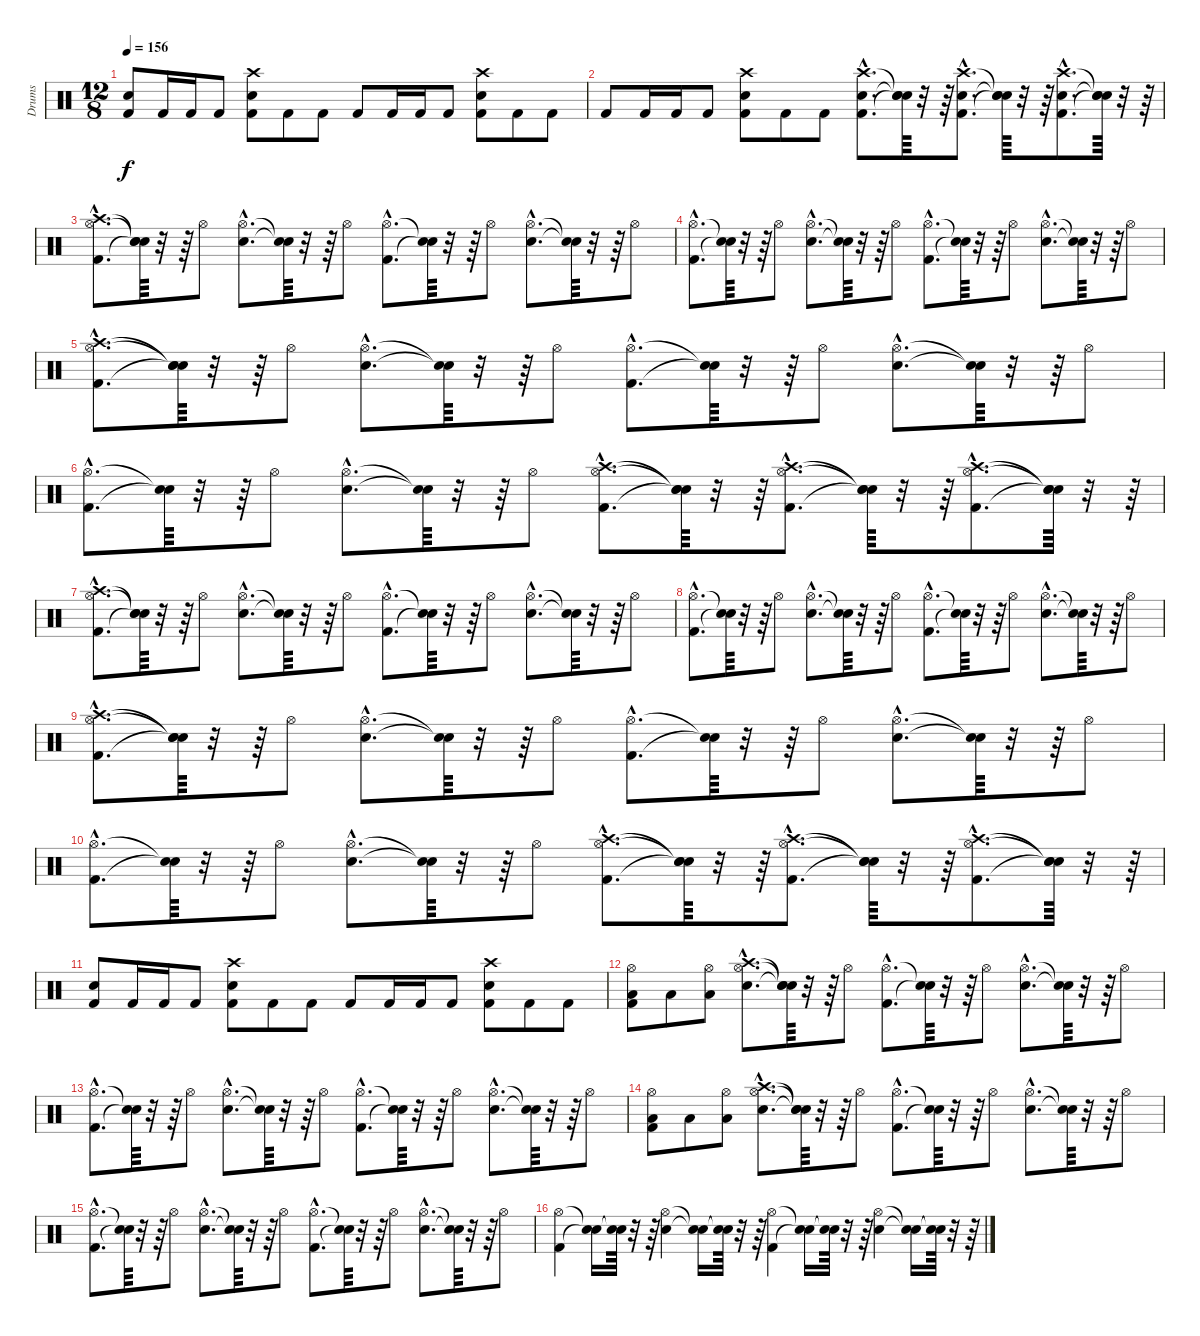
\track ("Drums" "Drums") {instrument percussion}
\staff {score}
\articulation defaults
\ts (12 8)
\tempo 156
\clef neutral
\ks c
("Kick (hit) 2" "Snare (hit) 2").8{dy f} "Kick (hit) 2".16 "Kick (hit) 2".16 "Kick (hit) 2".8 ("Kick (hit) 2" "Snare (hit) 2" "Crash high (hit)").8 "Kick (hit) 2".8 "Kick (hit) 2".8 "Kick (hit) 2".8 "Kick (hit) 2".16 "Kick (hit) 2".16 "Kick (hit) 2".8 ("Kick (hit) 2" "Snare (hit) 2" "Crash high (hit)").8 "Kick (hit) 2".8 "Kick (hit) 2".8 |
"Kick (hit) 2".8 "Kick (hit) 2".16 "Kick (hit) 2".16 "Kick (hit) 2".8 ("Kick (hit) 2" "Snare (hit) 2" "Crash high (hit)").8 "Kick (hit) 2".8 "Kick (hit) 2".8 ("Kick (hit) 2"{hac} "Snare (hit) 2"{hac} "Crash high (hit)"{hac}).8{d} ("Snare (hit)"{t} "Snare (hit)"{t} "Snare (hit)"{t}).64 r.32 r.64 ("Kick (hit) 2"{hac} "Snare (hit) 2"{hac} "Crash high (hit)"{hac}).8{d} ("Snare (hit)"{t} "Snare (hit)"{t} "Snare (hit)"{t}).64 r.32 r.64 ("Kick (hit) 2"{hac} "Snare (hit) 2"{hac} "Crash high (hit)"{hac}).8{d} ("Snare (hit)"{t} "Snare (hit)"{t} "Snare (hit)"{t}).64 r.32 r.64 |
("Kick (hit) 2"{hac} "Hi-Hat (open)"{hac} "Crash high (hit)"{hac}).8{d} ("Snare (hit)"{t} "Snare (hit)"{t} "Snare (hit)"{t}).64 r.32 r.64 "Hi-Hat (open)".8 ("Snare (hit) 2"{hac} "Hi-Hat (open)"{hac}).8{d} ("Snare (hit)"{t} "Snare (hit)"{t}).64 r.32 r.64 "Hi-Hat (open)".8 ("Kick (hit) 2"{hac} "Hi-Hat (open)"{hac}).8{d} ("Snare (hit)"{t} "Snare (hit)"{t}).64 r.32 r.64 "Hi-Hat (open)".8 ("Snare (hit) 2"{hac} "Hi-Hat (open)"{hac}).8{d} ("Snare (hit)"{t} "Snare (hit)"{t}).64 r.32 r.64 "Hi-Hat (open)".8 |
("Kick (hit) 2"{hac} "Hi-Hat (open)"{hac}).8{d} ("Snare (hit)"{t} "Snare (hit)"{t}).64 r.32 r.64 "Hi-Hat (open)".8 ("Snare (hit) 2"{hac} "Hi-Hat (open)"{hac}).8{d} ("Snare (hit)"{t} "Snare (hit)"{t}).64 r.32 r.64 "Hi-Hat (open)".8 ("Kick (hit) 2"{hac} "Hi-Hat (open)"{hac}).8{d} ("Snare (hit)"{t} "Snare (hit)"{t}).64 r.32 r.64 "Hi-Hat (open)".8 ("Snare (hit) 2"{hac} "Hi-Hat (open)"{hac}).8{d} ("Snare (hit)"{t} "Snare (hit)"{t}).64 r.32 r.64 "Hi-Hat (open)".8 |
("Kick (hit) 2"{hac} "Hi-Hat (open)"{hac} "Crash high (hit)"{hac}).8{d} ("Snare (hit)"{t} "Snare (hit)"{t} "Snare (hit)"{t}).64 r.32 r.64 "Hi-Hat (open)".8 ("Snare (hit) 2"{hac} "Hi-Hat (open)"{hac}).8{d} ("Snare (hit)"{t} "Snare (hit)"{t}).64 r.32 r.64 "Hi-Hat (open)".8 ("Kick (hit) 2"{hac} "Hi-Hat (open)"{hac}).8{d} ("Snare (hit)"{t} "Snare (hit)"{t}).64 r.32 r.64 "Hi-Hat (open)".8 ("Snare (hit) 2"{hac} "Hi-Hat (open)"{hac}).8{d} ("Snare (hit)"{t} "Snare (hit)"{t}).64 r.32 r.64 "Hi-Hat (open)".8 |
("Kick (hit) 2"{hac} "Hi-Hat (open)"{hac}).8{d} ("Snare (hit)"{t} "Snare (hit)"{t}).64 r.32 r.64 "Hi-Hat (open)".8 ("Snare (hit) 2"{hac} "Hi-Hat (open)"{hac}).8{d} ("Snare (hit)"{t} "Snare (hit)"{t}).64 r.32 r.64 "Hi-Hat (open)".8 ("Kick (hit) 2"{hac} "Hi-Hat (open)"{hac} "Crash high (hit)"{hac}).8{d} ("Snare (hit)"{t} "Snare (hit)"{t} "Snare (hit)"{t}).64 r.32 r.64 ("Kick (hit) 2"{hac} "Hi-Hat (open)"{hac} "Crash high (hit)"{hac}).8{d} ("Snare (hit)"{t} "Snare (hit)"{t} "Snare (hit)"{t}).64 r.32 r.64 ("Kick (hit) 2"{hac} "Hi-Hat (open)"{hac} "Crash high (hit)"{hac}).8{d} ("Snare (hit)"{t} "Snare (hit)"{t} "Snare (hit)"{t}).64 r.32 r.64 |
("Kick (hit) 2"{hac} "Hi-Hat (open)"{hac} "Crash high (hit)"{hac}).8{d} ("Snare (hit)"{t} "Snare (hit)"{t} "Snare (hit)"{t}).64 r.32 r.64 "Hi-Hat (open)".8 ("Snare (hit) 2"{hac} "Hi-Hat (open)"{hac}).8{d} ("Snare (hit)"{t} "Snare (hit)"{t}).64 r.32 r.64 "Hi-Hat (open)".8 ("Kick (hit) 2"{hac} "Hi-Hat (open)"{hac}).8{d} ("Snare (hit)"{t} "Snare (hit)"{t}).64 r.32 r.64 "Hi-Hat (open)".8 ("Snare (hit) 2"{hac} "Hi-Hat (open)"{hac}).8{d} ("Snare (hit)"{t} "Snare (hit)"{t}).64 r.32 r.64 "Hi-Hat (open)".8 |
("Kick (hit) 2"{hac} "Hi-Hat (open)"{hac}).8{d} ("Snare (hit)"{t} "Snare (hit)"{t}).64 r.32 r.64 "Hi-Hat (open)".8 ("Snare (hit) 2"{hac} "Hi-Hat (open)"{hac}).8{d} ("Snare (hit)"{t} "Snare (hit)"{t}).64 r.32 r.64 "Hi-Hat (open)".8 ("Kick (hit) 2"{hac} "Hi-Hat (open)"{hac}).8{d} ("Snare (hit)"{t} "Snare (hit)"{t}).64 r.32 r.64 "Hi-Hat (open)".8 ("Snare (hit) 2"{hac} "Hi-Hat (open)"{hac}).8{d} ("Snare (hit)"{t} "Snare (hit)"{t}).64 r.32 r.64 "Hi-Hat (open)".8 |
("Kick (hit) 2"{hac} "Hi-Hat (open)"{hac} "Crash high (hit)"{hac}).8{d} ("Snare (hit)"{t} "Snare (hit)"{t} "Snare (hit)"{t}).64 r.32 r.64 "Hi-Hat (open)".8 ("Snare (hit) 2"{hac} "Hi-Hat (open)"{hac}).8{d} ("Snare (hit)"{t} "Snare (hit)"{t}).64 r.32 r.64 "Hi-Hat (open)".8 ("Kick (hit) 2"{hac} "Hi-Hat (open)"{hac}).8{d} ("Snare (hit)"{t} "Snare (hit)"{t}).64 r.32 r.64 "Hi-Hat (open)".8 ("Snare (hit) 2"{hac} "Hi-Hat (open)"{hac}).8{d} ("Snare (hit)"{t} "Snare (hit)"{t}).64 r.32 r.64 "Hi-Hat (open)".8 |
("Kick (hit) 2"{hac} "Hi-Hat (open)"{hac}).8{d} ("Snare (hit)"{t} "Snare (hit)"{t}).64 r.32 r.64 "Hi-Hat (open)".8 ("Snare (hit) 2"{hac} "Hi-Hat (open)"{hac}).8{d} ("Snare (hit)"{t} "Snare (hit)"{t}).64 r.32 r.64 "Hi-Hat (open)".8 ("Kick (hit) 2"{hac} "Hi-Hat (open)"{hac} "Crash high (hit)"{hac}).8{d} ("Snare (hit)"{t} "Snare (hit)"{t} "Snare (hit)"{t}).64 r.32 r.64 ("Kick (hit) 2"{hac} "Hi-Hat (open)"{hac} "Crash high (hit)"{hac}).8{d} ("Snare (hit)"{t} "Snare (hit)"{t} "Snare (hit)"{t}).64 r.32 r.64 ("Kick (hit) 2"{hac} "Hi-Hat (open)"{hac} "Crash high (hit)"{hac}).8{d} ("Snare (hit)"{t} "Snare (hit)"{t} "Snare (hit)"{t}).64 r.32 r.64 |
("Kick (hit) 2" "Snare (hit) 2").8 "Kick (hit) 2".16 "Kick (hit) 2".16 "Kick (hit) 2".8 ("Kick (hit) 2" "Snare (hit) 2" "Crash high (hit)").8 "Kick (hit) 2".8 "Kick (hit) 2".8 "Kick (hit) 2".8 "Kick (hit) 2".16 "Kick (hit) 2".16 "Kick (hit) 2".8 ("Kick (hit) 2" "Snare (hit) 2" "Crash high (hit)").8 "Kick (hit) 2".8 "Kick (hit) 2".8 |
("Kick (hit) 2" "Low Floor Tom (hit)" "Hi-Hat (open)").8 "Low Floor Tom (hit)".8 ("Low Floor Tom (hit)" "Hi-Hat (open)").8 ("Snare (hit) 2"{hac} "Hi-Hat (open)"{hac} "Crash high (hit)"{hac}).8{d} ("Snare (hit)"{t} "Snare (hit)"{t} "Snare (hit)"{t}).64 r.32 r.64 "Hi-Hat (open)".8 ("Kick (hit) 2"{hac} "Hi-Hat (open)"{hac}).8{d} ("Snare (hit)"{t} "Snare (hit)"{t}).64 r.32 r.64 "Hi-Hat (open)".8 ("Snare (hit) 2"{hac} "Hi-Hat (open)"{hac}).8{d} ("Snare (hit)"{t} "Snare (hit)"{t}).64 r.32 r.64 "Hi-Hat (open)".8 |
("Kick (hit) 2"{hac} "Hi-Hat (open)"{hac}).8{d} ("Snare (hit)"{t} "Snare (hit)"{t}).64 r.32 r.64 "Hi-Hat (open)".8 ("Snare (hit) 2"{hac} "Hi-Hat (open)"{hac}).8{d} ("Snare (hit)"{t} "Snare (hit)"{t}).64 r.32 r.64 "Hi-Hat (open)".8 ("Kick (hit) 2"{hac} "Hi-Hat (open)"{hac}).8{d} ("Snare (hit)"{t} "Snare (hit)"{t}).64 r.32 r.64 "Hi-Hat (open)".8 ("Snare (hit) 2"{hac} "Hi-Hat (open)"{hac}).8{d} ("Snare (hit)"{t} "Snare (hit)"{t}).64 r.32 r.64 "Hi-Hat (open)".8 |
("Kick (hit) 2" "Low Floor Tom (hit)" "Hi-Hat (open)").8 "Low Floor Tom (hit)".8 ("Low Floor Tom (hit)" "Hi-Hat (open)").8 ("Snare (hit) 2"{hac} "Hi-Hat (open)"{hac} "Crash high (hit)"{hac}).8{d} ("Snare (hit)"{t} "Snare (hit)"{t} "Snare (hit)"{t}).64 r.32 r.64 "Hi-Hat (open)".8 ("Kick (hit) 2"{hac} "Hi-Hat (open)"{hac}).8{d} ("Snare (hit)"{t} "Snare (hit)"{t}).64 r.32 r.64 "Hi-Hat (open)".8 ("Snare (hit) 2"{hac} "Hi-Hat (open)"{hac}).8{d} ("Snare (hit)"{t} "Snare (hit)"{t}).64 r.32 r.64 "Hi-Hat (open)".8 |
("Kick (hit) 2"{hac} "Hi-Hat (open)"{hac}).8{d} ("Snare (hit)"{t} "Snare (hit)"{t}).64 r.32 r.64 "Hi-Hat (open)".8 ("Snare (hit) 2"{hac} "Hi-Hat (open)"{hac}).8{d} ("Snare (hit)"{t} "Snare (hit)"{t}).64 r.32 r.64 "Hi-Hat (open)".8 ("Kick (hit) 2"{hac} "Hi-Hat (open)"{hac}).8{d} ("Snare (hit)"{t} "Snare (hit)"{t}).64 r.32 r.64 "Hi-Hat (open)".8 ("Snare (hit) 2"{hac} "Hi-Hat (open)"{hac}).8{d} ("Snare (hit)"{t} "Snare (hit)"{t}).64 r.32 r.64 "Hi-Hat (open)".8 |
("Kick (hit) 2" "Hi-Hat (open)").4 ("Snare (hit)"{t} "Snare (hit)"{t}).16 ("Snare (hit)"{t} "Snare (hit)"{t}).64 r.32 r.64 ("Snare (hit) 2" "Hi-Hat (open)").4 ("Snare (hit)"{t} "Snare (hit)"{t}).16 ("Snare (hit)"{t} "Snare (hit)"{t}).64 r.32 r.64 ("Kick (hit) 2" "Hi-Hat (open)").4 ("Snare (hit)"{t} "Snare (hit)"{t}).16 ("Snare (hit)"{t} "Snare (hit)"{t}).64 r.32 r.64 ("Snare (hit) 2" "Hi-Hat (open)").4 ("Snare (hit)"{t} "Snare (hit)"{t}).16 ("Snare (hit)"{t} "Snare (hit)"{t}).64 r.32 r.64
